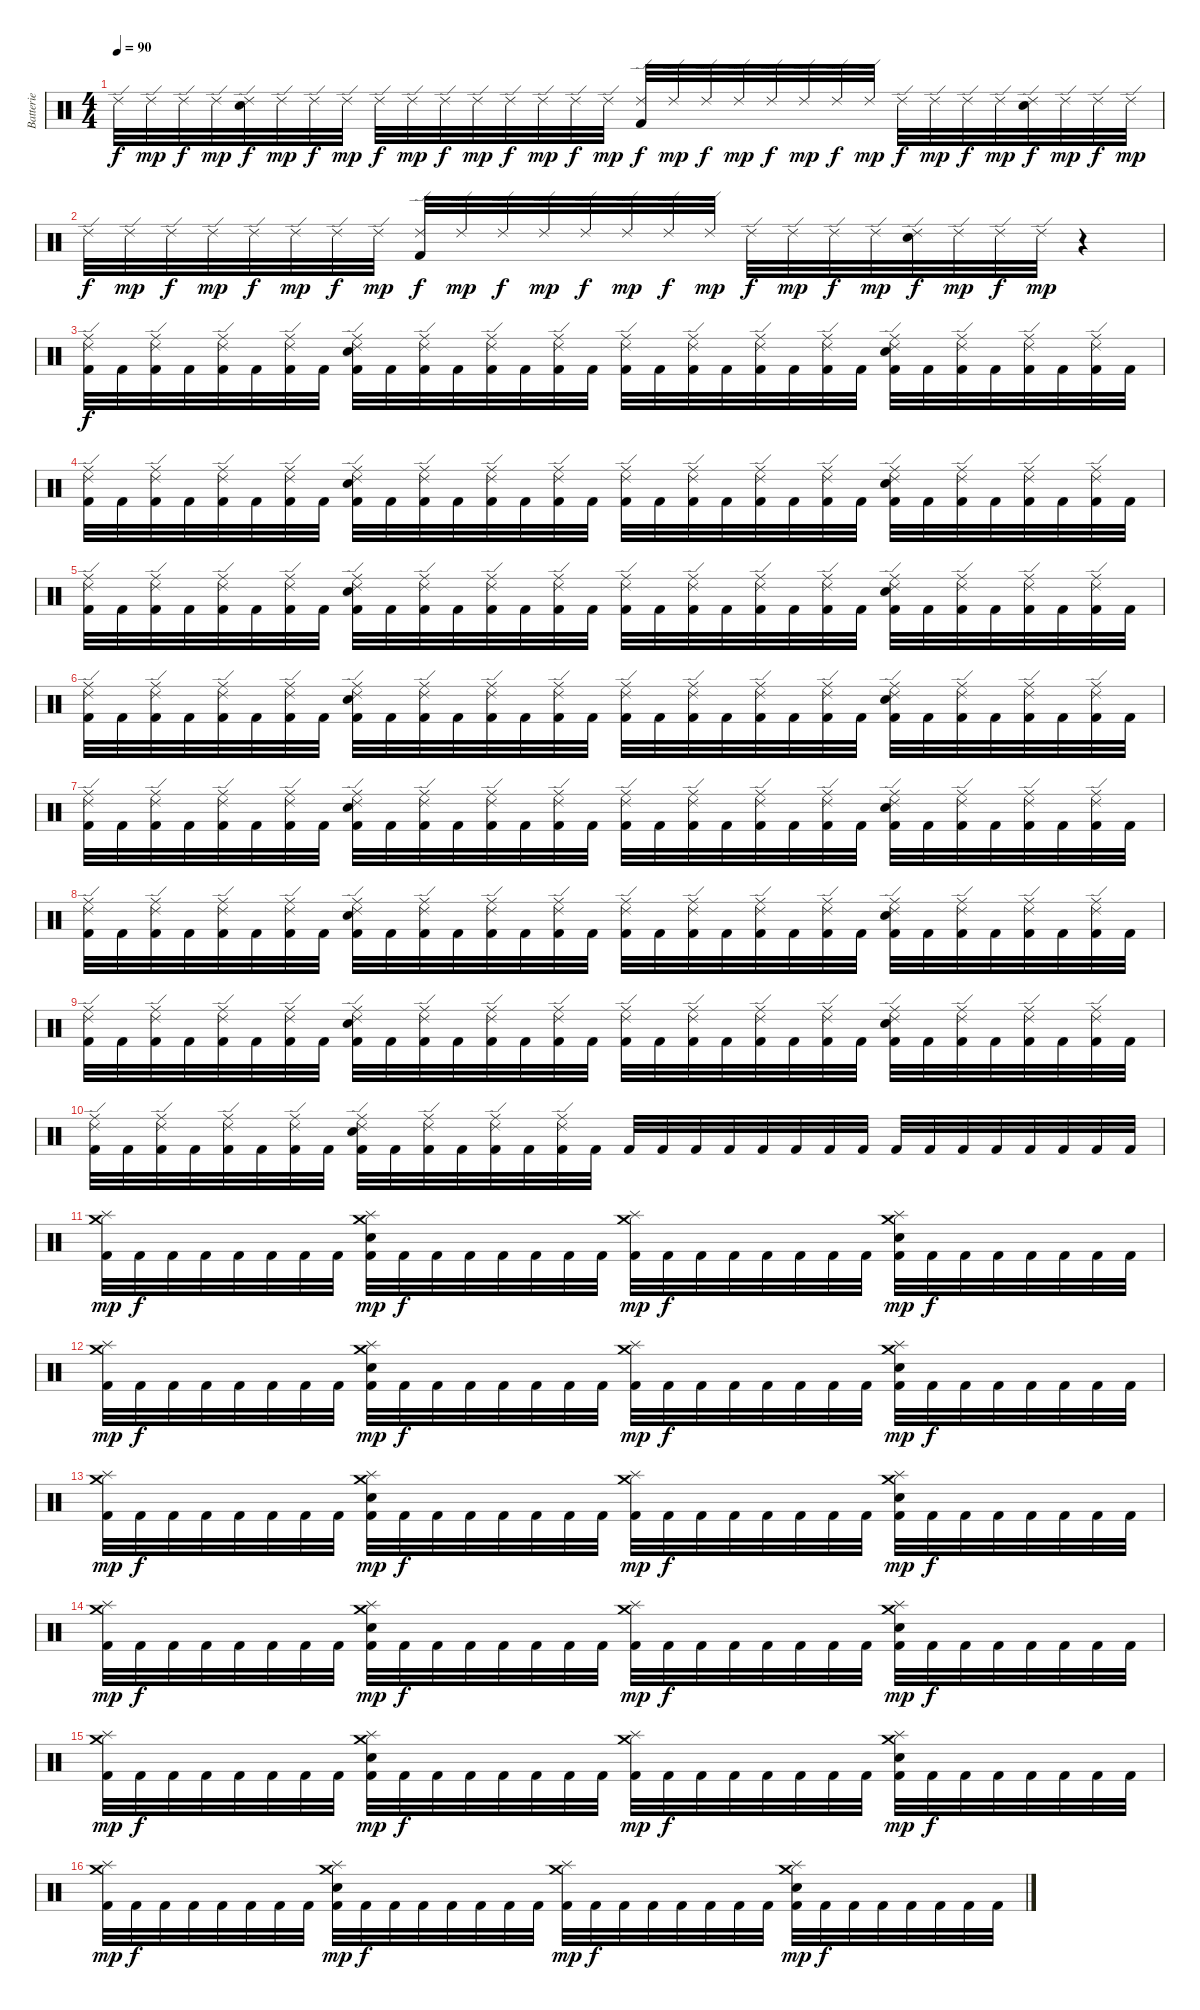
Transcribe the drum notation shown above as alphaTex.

\track ("Batterie" "Batterie") {instrument percussion}
\staff {score}
\articulation defaults
\ts (4 4)
\tempo 90
\clef neutral
\ks c "Ride (edge) 2".32{dy f} "Ride (edge) 2".32{dy mp} "Ride (edge) 2".32{dy f} "Ride (edge) 2".32{dy mp}
("Ride (edge) 2" "Electric Snare (hit)").32{dy f} "Ride (edge) 2".32{dy mp} "Ride (edge) 2".32{dy f} "Ride (edge) 2".32{dy mp} "Ride (edge) 2".32{dy f} "Ride (edge) 2".32{dy mp} "Ride (edge) 2".32{dy f} "Ride (edge) 2".32{dy mp} "Ride (edge) 2".32{dy f} "Ride (edge) 2".32{dy mp} "Ride (edge) 2".32{dy f} "Ride (edge) 2".32{dy mp} ("Ride (edge) 2" "Kick (hit) 2").32{dy f} "Ride (edge) 2".32{dy mp} "Ride (edge) 2".32{dy f} "Ride (edge) 2".32{dy mp} "Ride (edge) 2".32{dy f} "Ride (edge) 2".32{dy mp} "Ride (edge) 2".32{dy f} "Ride (edge) 2".32{dy mp} "Ride (edge) 2".32{dy f} "Ride (edge) 2".32{dy mp} "Ride (edge) 2".32{dy f} "Ride (edge) 2".32{dy mp} ("Ride (edge) 2" "Electric Snare (hit)").32{dy f} "Ride (edge) 2".32{dy mp} "Ride (edge) 2".32{dy f} "Ride (edge) 2".32{dy mp} |
"Ride (edge) 2".32{dy f} "Ride (edge) 2".32{dy mp} "Ride (edge) 2".32{dy f} "Ride (edge) 2".32{dy mp} "Ride (edge) 2".32{dy f} "Ride (edge) 2".32{dy mp} "Ride (edge) 2".32{dy f} "Ride (edge) 2".32{dy mp} ("Ride (edge) 2" "Kick (hit) 2").32{dy f} "Ride (edge) 2".32{dy mp} "Ride (edge) 2".32{dy f} "Ride (edge) 2".32{dy mp} "Ride (edge) 2".32{dy f} "Ride (edge) 2".32{dy mp} "Ride (edge) 2".32{dy f} "Ride (edge) 2".32{dy mp} "Ride (edge) 2".32{dy f} "Ride (edge) 2".32{dy mp} "Ride (edge) 2".32{dy f} "Ride (edge) 2".32{dy mp} ("Ride (edge) 2" "Electric Snare (hit)").32{dy f} "Ride (edge) 2".32{dy mp} "Ride (edge) 2".32{dy f} "Ride (edge) 2".32{dy mp} r.4 |
("Ride (edge) 2" "Ride (middle)" "Kick (hit) 2").32{dy f} "Kick (hit) 2".32 ("Ride (edge) 2" "Ride (middle)" "Kick (hit) 2").32 "Kick (hit) 2".32 ("Ride (edge) 2" "Ride (middle)" "Kick (hit) 2").32 "Kick (hit) 2".32 ("Ride (edge) 2" "Ride (middle)" "Kick (hit) 2").32 "Kick (hit) 2".32 ("Ride (edge) 2" "Ride (middle)" "Electric Snare (hit)" "Kick (hit) 2").32 "Kick (hit) 2".32 ("Ride (edge) 2" "Ride (middle)" "Kick (hit) 2").32 "Kick (hit) 2".32 ("Ride (edge) 2" "Ride (middle)" "Kick (hit) 2").32 "Kick (hit) 2".32 ("Ride (edge) 2" "Ride (middle)" "Kick (hit) 2").32 "Kick (hit) 2".32 ("Ride (edge) 2" "Ride (middle)" "Kick (hit) 2").32 "Kick (hit) 2".32 ("Ride (edge) 2" "Ride (middle)" "Kick (hit) 2").32 "Kick (hit) 2".32 ("Ride (edge) 2" "Ride (middle)" "Kick (hit) 2").32 "Kick (hit) 2".32 ("Ride (edge) 2" "Ride (middle)" "Kick (hit) 2").32 "Kick (hit) 2".32 ("Ride (edge) 2" "Ride (middle)" "Electric Snare (hit)" "Kick (hit) 2").32 "Kick (hit) 2".32 ("Ride (edge) 2" "Ride (middle)" "Kick (hit) 2").32 "Kick (hit) 2".32 ("Ride (edge) 2" "Ride (middle)" "Kick (hit) 2").32 "Kick (hit) 2".32 ("Ride (edge) 2" "Ride (middle)" "Kick (hit) 2").32 "Kick (hit) 2".32 |
("Ride (edge) 2" "Ride (middle)" "Kick (hit) 2").32 "Kick (hit) 2".32 ("Ride (edge) 2" "Ride (middle)" "Kick (hit) 2").32 "Kick (hit) 2".32 ("Ride (edge) 2" "Ride (middle)" "Kick (hit) 2").32 "Kick (hit) 2".32 ("Ride (edge) 2" "Ride (middle)" "Kick (hit) 2").32 "Kick (hit) 2".32 ("Ride (edge) 2" "Ride (middle)" "Electric Snare (hit)" "Kick (hit) 2").32 "Kick (hit) 2".32 ("Ride (edge) 2" "Ride (middle)" "Kick (hit) 2").32 "Kick (hit) 2".32 ("Ride (edge) 2" "Ride (middle)" "Kick (hit) 2").32 "Kick (hit) 2".32 ("Ride (edge) 2" "Ride (middle)" "Kick (hit) 2").32 "Kick (hit) 2".32 ("Ride (edge) 2" "Ride (middle)" "Kick (hit) 2").32 "Kick (hit) 2".32 ("Ride (edge) 2" "Ride (middle)" "Kick (hit) 2").32 "Kick (hit) 2".32 ("Ride (edge) 2" "Ride (middle)" "Kick (hit) 2").32 "Kick (hit) 2".32 ("Ride (edge) 2" "Ride (middle)" "Kick (hit) 2").32 "Kick (hit) 2".32 ("Ride (edge) 2" "Ride (middle)" "Electric Snare (hit)" "Kick (hit) 2").32 "Kick (hit) 2".32 ("Ride (edge) 2" "Ride (middle)" "Kick (hit) 2").32 "Kick (hit) 2".32 ("Ride (edge) 2" "Ride (middle)" "Kick (hit) 2").32 "Kick (hit) 2".32 ("Ride (edge) 2" "Ride (middle)" "Kick (hit) 2").32 "Kick (hit) 2".32 |
("Ride (edge) 2" "Ride (middle)" "Kick (hit) 2").32 "Kick (hit) 2".32 ("Ride (edge) 2" "Ride (middle)" "Kick (hit) 2").32 "Kick (hit) 2".32 ("Ride (edge) 2" "Ride (middle)" "Kick (hit) 2").32 "Kick (hit) 2".32 ("Ride (edge) 2" "Ride (middle)" "Kick (hit) 2").32 "Kick (hit) 2".32 ("Ride (edge) 2" "Ride (middle)" "Electric Snare (hit)" "Kick (hit) 2").32 "Kick (hit) 2".32 ("Ride (edge) 2" "Ride (middle)" "Kick (hit) 2").32 "Kick (hit) 2".32 ("Ride (edge) 2" "Ride (middle)" "Kick (hit) 2").32 "Kick (hit) 2".32 ("Ride (edge) 2" "Ride (middle)" "Kick (hit) 2").32 "Kick (hit) 2".32 ("Ride (edge) 2" "Ride (middle)" "Kick (hit) 2").32 "Kick (hit) 2".32 ("Ride (edge) 2" "Ride (middle)" "Kick (hit) 2").32 "Kick (hit) 2".32 ("Ride (edge) 2" "Ride (middle)" "Kick (hit) 2").32 "Kick (hit) 2".32 ("Ride (edge) 2" "Ride (middle)" "Kick (hit) 2").32 "Kick (hit) 2".32 ("Ride (edge) 2" "Ride (middle)" "Electric Snare (hit)" "Kick (hit) 2").32 "Kick (hit) 2".32 ("Ride (edge) 2" "Ride (middle)" "Kick (hit) 2").32 "Kick (hit) 2".32 ("Ride (edge) 2" "Ride (middle)" "Kick (hit) 2").32 "Kick (hit) 2".32 ("Ride (edge) 2" "Ride (middle)" "Kick (hit) 2").32 "Kick (hit) 2".32 |
("Ride (edge) 2" "Ride (middle)" "Kick (hit) 2").32 "Kick (hit) 2".32 ("Ride (edge) 2" "Ride (middle)" "Kick (hit) 2").32 "Kick (hit) 2".32 ("Ride (edge) 2" "Ride (middle)" "Kick (hit) 2").32 "Kick (hit) 2".32 ("Ride (edge) 2" "Ride (middle)" "Kick (hit) 2").32 "Kick (hit) 2".32 ("Ride (edge) 2" "Ride (middle)" "Electric Snare (hit)" "Kick (hit) 2").32 "Kick (hit) 2".32 ("Ride (edge) 2" "Ride (middle)" "Kick (hit) 2").32 "Kick (hit) 2".32 ("Ride (edge) 2" "Ride (middle)" "Kick (hit) 2").32 "Kick (hit) 2".32 ("Ride (edge) 2" "Ride (middle)" "Kick (hit) 2").32 "Kick (hit) 2".32 ("Ride (edge) 2" "Ride (middle)" "Kick (hit) 2").32 "Kick (hit) 2".32 ("Ride (edge) 2" "Ride (middle)" "Kick (hit) 2").32 "Kick (hit) 2".32 ("Ride (edge) 2" "Ride (middle)" "Kick (hit) 2").32 "Kick (hit) 2".32 ("Ride (edge) 2" "Ride (middle)" "Kick (hit) 2").32 "Kick (hit) 2".32 ("Ride (edge) 2" "Ride (middle)" "Electric Snare (hit)" "Kick (hit) 2").32 "Kick (hit) 2".32 ("Ride (edge) 2" "Ride (middle)" "Kick (hit) 2").32 "Kick (hit) 2".32 ("Ride (edge) 2" "Ride (middle)" "Kick (hit) 2").32 "Kick (hit) 2".32 ("Ride (edge) 2" "Ride (middle)" "Kick (hit) 2").32 "Kick (hit) 2".32 |
("Ride (edge) 2" "Ride (middle)" "Kick (hit) 2").32 "Kick (hit) 2".32 ("Ride (edge) 2" "Ride (middle)" "Kick (hit) 2").32 "Kick (hit) 2".32 ("Ride (edge) 2" "Ride (middle)" "Kick (hit) 2").32 "Kick (hit) 2".32 ("Ride (edge) 2" "Ride (middle)" "Kick (hit) 2").32 "Kick (hit) 2".32 ("Ride (edge) 2" "Ride (middle)" "Electric Snare (hit)" "Kick (hit) 2").32 "Kick (hit) 2".32 ("Ride (edge) 2" "Ride (middle)" "Kick (hit) 2").32 "Kick (hit) 2".32 ("Ride (edge) 2" "Ride (middle)" "Kick (hit) 2").32 "Kick (hit) 2".32 ("Ride (edge) 2" "Ride (middle)" "Kick (hit) 2").32 "Kick (hit) 2".32 ("Ride (edge) 2" "Ride (middle)" "Kick (hit) 2").32 "Kick (hit) 2".32 ("Ride (edge) 2" "Ride (middle)" "Kick (hit) 2").32 "Kick (hit) 2".32 ("Ride (edge) 2" "Ride (middle)" "Kick (hit) 2").32 "Kick (hit) 2".32 ("Ride (edge) 2" "Ride (middle)" "Kick (hit) 2").32 "Kick (hit) 2".32 ("Ride (edge) 2" "Ride (middle)" "Electric Snare (hit)" "Kick (hit) 2").32 "Kick (hit) 2".32 ("Ride (edge) 2" "Ride (middle)" "Kick (hit) 2").32 "Kick (hit) 2".32 ("Ride (edge) 2" "Ride (middle)" "Kick (hit) 2").32 "Kick (hit) 2".32 ("Ride (edge) 2" "Ride (middle)" "Kick (hit) 2").32 "Kick (hit) 2".32 |
("Ride (edge) 2" "Ride (middle)" "Kick (hit) 2").32 "Kick (hit) 2".32 ("Ride (edge) 2" "Ride (middle)" "Kick (hit) 2").32 "Kick (hit) 2".32 ("Ride (edge) 2" "Ride (middle)" "Kick (hit) 2").32 "Kick (hit) 2".32 ("Ride (edge) 2" "Ride (middle)" "Kick (hit) 2").32 "Kick (hit) 2".32 ("Ride (edge) 2" "Ride (middle)" "Electric Snare (hit)" "Kick (hit) 2").32 "Kick (hit) 2".32 ("Ride (edge) 2" "Ride (middle)" "Kick (hit) 2").32 "Kick (hit) 2".32 ("Ride (edge) 2" "Ride (middle)" "Kick (hit) 2").32 "Kick (hit) 2".32 ("Ride (edge) 2" "Ride (middle)" "Kick (hit) 2").32 "Kick (hit) 2".32 ("Ride (edge) 2" "Ride (middle)" "Kick (hit) 2").32 "Kick (hit) 2".32 ("Ride (edge) 2" "Ride (middle)" "Kick (hit) 2").32 "Kick (hit) 2".32 ("Ride (edge) 2" "Ride (middle)" "Kick (hit) 2").32 "Kick (hit) 2".32 ("Ride (edge) 2" "Ride (middle)" "Kick (hit) 2").32 "Kick (hit) 2".32 ("Ride (edge) 2" "Ride (middle)" "Electric Snare (hit)" "Kick (hit) 2").32 "Kick (hit) 2".32 ("Ride (edge) 2" "Ride (middle)" "Kick (hit) 2").32 "Kick (hit) 2".32 ("Ride (edge) 2" "Ride (middle)" "Kick (hit) 2").32 "Kick (hit) 2".32 ("Ride (edge) 2" "Ride (middle)" "Kick (hit) 2").32 "Kick (hit) 2".32 |
("Ride (edge) 2" "Ride (middle)" "Kick (hit) 2").32 "Kick (hit) 2".32 ("Ride (edge) 2" "Ride (middle)" "Kick (hit) 2").32 "Kick (hit) 2".32 ("Ride (edge) 2" "Ride (middle)" "Kick (hit) 2").32 "Kick (hit) 2".32 ("Ride (edge) 2" "Ride (middle)" "Kick (hit) 2").32 "Kick (hit) 2".32 ("Ride (edge) 2" "Ride (middle)" "Electric Snare (hit)" "Kick (hit) 2").32 "Kick (hit) 2".32 ("Ride (edge) 2" "Ride (middle)" "Kick (hit) 2").32 "Kick (hit) 2".32 ("Ride (edge) 2" "Ride (middle)" "Kick (hit) 2").32 "Kick (hit) 2".32 ("Ride (edge) 2" "Ride (middle)" "Kick (hit) 2").32 "Kick (hit) 2".32 ("Ride (edge) 2" "Ride (middle)" "Kick (hit) 2").32 "Kick (hit) 2".32 ("Ride (edge) 2" "Ride (middle)" "Kick (hit) 2").32 "Kick (hit) 2".32 ("Ride (edge) 2" "Ride (middle)" "Kick (hit) 2").32 "Kick (hit) 2".32 ("Ride (edge) 2" "Ride (middle)" "Kick (hit) 2").32 "Kick (hit) 2".32 ("Ride (edge) 2" "Ride (middle)" "Electric Snare (hit)" "Kick (hit) 2").32 "Kick (hit) 2".32 ("Ride (edge) 2" "Ride (middle)" "Kick (hit) 2").32 "Kick (hit) 2".32 ("Ride (edge) 2" "Ride (middle)" "Kick (hit) 2").32 "Kick (hit) 2".32 ("Ride (edge) 2" "Ride (middle)" "Kick (hit) 2").32 "Kick (hit) 2".32 |
("Ride (edge) 2" "Ride (middle)" "Kick (hit) 2").32 "Kick (hit) 2".32 ("Ride (edge) 2" "Ride (middle)" "Kick (hit) 2").32 "Kick (hit) 2".32 ("Ride (edge) 2" "Ride (middle)" "Kick (hit) 2").32 "Kick (hit) 2".32 ("Ride (edge) 2" "Ride (middle)" "Kick (hit) 2").32 "Kick (hit) 2".32 ("Ride (edge) 2" "Ride (middle)" "Electric Snare (hit)" "Kick (hit) 2").32 "Kick (hit) 2".32 ("Ride (edge) 2" "Ride (middle)" "Kick (hit) 2").32 "Kick (hit) 2".32 ("Ride (edge) 2" "Ride (middle)" "Kick (hit) 2").32 "Kick (hit) 2".32 ("Ride (edge) 2" "Ride (middle)" "Kick (hit) 2").32 "Kick (hit) 2".32 "Kick (hit) 2".32 "Kick (hit) 2".32 "Kick (hit) 2".32 "Kick (hit) 2".32 "Kick (hit) 2".32 "Kick (hit) 2".32 "Kick (hit) 2".32 "Kick (hit) 2".32 "Kick (hit) 2".32 "Kick (hit) 2".32 "Kick (hit) 2".32 "Kick (hit) 2".32 "Kick (hit) 2".32 "Kick (hit) 2".32 "Kick (hit) 2".32 "Kick (hit) 2".32 |
("Splash (hit)" "Crash medium (hit)" "Kick (hit) 2").32{dy mp} "Kick (hit) 2".32{dy f} "Kick (hit) 2".32 "Kick (hit) 2".32 "Kick (hit) 2".32 "Kick (hit) 2".32 "Kick (hit) 2".32 "Kick (hit) 2".32 ("Splash (hit)" "Crash medium (hit)" "Electric Snare (hit)" "Kick (hit) 2").32{dy mp} "Kick (hit) 2".32{dy f} "Kick (hit) 2".32 "Kick (hit) 2".32 "Kick (hit) 2".32 "Kick (hit) 2".32 "Kick (hit) 2".32 "Kick (hit) 2".32 ("Splash (hit)" "Crash medium (hit)" "Kick (hit) 2").32{dy mp} "Kick (hit) 2".32{dy f} "Kick (hit) 2".32 "Kick (hit) 2".32 "Kick (hit) 2".32 "Kick (hit) 2".32 "Kick (hit) 2".32 "Kick (hit) 2".32 ("Splash (hit)" "Crash medium (hit)" "Electric Snare (hit)" "Kick (hit) 2").32{dy mp} "Kick (hit) 2".32{dy f} "Kick (hit) 2".32 "Kick (hit) 2".32 "Kick (hit) 2".32 "Kick (hit) 2".32 "Kick (hit) 2".32 "Kick (hit) 2".32 |
("Splash (hit)" "Crash medium (hit)" "Kick (hit) 2").32{dy mp} "Kick (hit) 2".32{dy f} "Kick (hit) 2".32 "Kick (hit) 2".32 "Kick (hit) 2".32 "Kick (hit) 2".32 "Kick (hit) 2".32 "Kick (hit) 2".32 ("Splash (hit)" "Crash medium (hit)" "Electric Snare (hit)" "Kick (hit) 2").32{dy mp} "Kick (hit) 2".32{dy f} "Kick (hit) 2".32 "Kick (hit) 2".32 "Kick (hit) 2".32 "Kick (hit) 2".32 "Kick (hit) 2".32 "Kick (hit) 2".32 ("Splash (hit)" "Crash medium (hit)" "Kick (hit) 2").32{dy mp} "Kick (hit) 2".32{dy f} "Kick (hit) 2".32 "Kick (hit) 2".32 "Kick (hit) 2".32 "Kick (hit) 2".32 "Kick (hit) 2".32 "Kick (hit) 2".32 ("Splash (hit)" "Crash medium (hit)" "Electric Snare (hit)" "Kick (hit) 2").32{dy mp} "Kick (hit) 2".32{dy f} "Kick (hit) 2".32 "Kick (hit) 2".32 "Kick (hit) 2".32 "Kick (hit) 2".32 "Kick (hit) 2".32 "Kick (hit) 2".32 |
("Splash (hit)" "Crash medium (hit)" "Kick (hit) 2").32{dy mp} "Kick (hit) 2".32{dy f} "Kick (hit) 2".32 "Kick (hit) 2".32 "Kick (hit) 2".32 "Kick (hit) 2".32 "Kick (hit) 2".32 "Kick (hit) 2".32 ("Splash (hit)" "Crash medium (hit)" "Electric Snare (hit)" "Kick (hit) 2").32{dy mp} "Kick (hit) 2".32{dy f} "Kick (hit) 2".32 "Kick (hit) 2".32 "Kick (hit) 2".32 "Kick (hit) 2".32 "Kick (hit) 2".32 "Kick (hit) 2".32 ("Splash (hit)" "Crash medium (hit)" "Kick (hit) 2").32{dy mp} "Kick (hit) 2".32{dy f} "Kick (hit) 2".32 "Kick (hit) 2".32 "Kick (hit) 2".32 "Kick (hit) 2".32 "Kick (hit) 2".32 "Kick (hit) 2".32 ("Splash (hit)" "Crash medium (hit)" "Electric Snare (hit)" "Kick (hit) 2").32{dy mp} "Kick (hit) 2".32{dy f} "Kick (hit) 2".32 "Kick (hit) 2".32 "Kick (hit) 2".32 "Kick (hit) 2".32 "Kick (hit) 2".32 "Kick (hit) 2".32 |
("Splash (hit)" "Crash medium (hit)" "Kick (hit) 2").32{dy mp} "Kick (hit) 2".32{dy f} "Kick (hit) 2".32 "Kick (hit) 2".32 "Kick (hit) 2".32 "Kick (hit) 2".32 "Kick (hit) 2".32 "Kick (hit) 2".32 ("Splash (hit)" "Crash medium (hit)" "Electric Snare (hit)" "Kick (hit) 2").32{dy mp} "Kick (hit) 2".32{dy f} "Kick (hit) 2".32 "Kick (hit) 2".32 "Kick (hit) 2".32 "Kick (hit) 2".32 "Kick (hit) 2".32 "Kick (hit) 2".32 ("Splash (hit)" "Crash medium (hit)" "Kick (hit) 2").32{dy mp} "Kick (hit) 2".32{dy f} "Kick (hit) 2".32 "Kick (hit) 2".32 "Kick (hit) 2".32 "Kick (hit) 2".32 "Kick (hit) 2".32 "Kick (hit) 2".32 ("Splash (hit)" "Crash medium (hit)" "Electric Snare (hit)" "Kick (hit) 2").32{dy mp} "Kick (hit) 2".32{dy f} "Kick (hit) 2".32 "Kick (hit) 2".32 "Kick (hit) 2".32 "Kick (hit) 2".32 "Kick (hit) 2".32 "Kick (hit) 2".32 |
("Splash (hit)" "Crash medium (hit)" "Kick (hit) 2").32{dy mp} "Kick (hit) 2".32{dy f} "Kick (hit) 2".32 "Kick (hit) 2".32 "Kick (hit) 2".32 "Kick (hit) 2".32 "Kick (hit) 2".32 "Kick (hit) 2".32 ("Splash (hit)" "Crash medium (hit)" "Electric Snare (hit)" "Kick (hit) 2").32{dy mp} "Kick (hit) 2".32{dy f} "Kick (hit) 2".32 "Kick (hit) 2".32 "Kick (hit) 2".32 "Kick (hit) 2".32 "Kick (hit) 2".32 "Kick (hit) 2".32 ("Splash (hit)" "Crash medium (hit)" "Kick (hit) 2").32{dy mp} "Kick (hit) 2".32{dy f} "Kick (hit) 2".32 "Kick (hit) 2".32 "Kick (hit) 2".32 "Kick (hit) 2".32 "Kick (hit) 2".32 "Kick (hit) 2".32 ("Splash (hit)" "Crash medium (hit)" "Electric Snare (hit)" "Kick (hit) 2").32{dy mp} "Kick (hit) 2".32{dy f} "Kick (hit) 2".32 "Kick (hit) 2".32 "Kick (hit) 2".32 "Kick (hit) 2".32 "Kick (hit) 2".32 "Kick (hit) 2".32 |
("Splash (hit)" "Crash medium (hit)" "Kick (hit) 2").32{dy mp} "Kick (hit) 2".32{dy f} "Kick (hit) 2".32 "Kick (hit) 2".32 "Kick (hit) 2".32 "Kick (hit) 2".32 "Kick (hit) 2".32 "Kick (hit) 2".32 ("Splash (hit)" "Crash medium (hit)" "Electric Snare (hit)" "Kick (hit) 2").32{dy mp} "Kick (hit) 2".32{dy f} "Kick (hit) 2".32 "Kick (hit) 2".32 "Kick (hit) 2".32 "Kick (hit) 2".32 "Kick (hit) 2".32 "Kick (hit) 2".32 ("Splash (hit)" "Crash medium (hit)" "Kick (hit) 2").32{dy mp} "Kick (hit) 2".32{dy f} "Kick (hit) 2".32 "Kick (hit) 2".32 "Kick (hit) 2".32 "Kick (hit) 2".32 "Kick (hit) 2".32 "Kick (hit) 2".32 ("Splash (hit)" "Crash medium (hit)" "Electric Snare (hit)" "Kick (hit) 2").32{dy mp} "Kick (hit) 2".32{dy f} "Kick (hit) 2".32 "Kick (hit) 2".32 "Kick (hit) 2".32 "Kick (hit) 2".32 "Kick (hit) 2".32 "Kick (hit) 2".32
